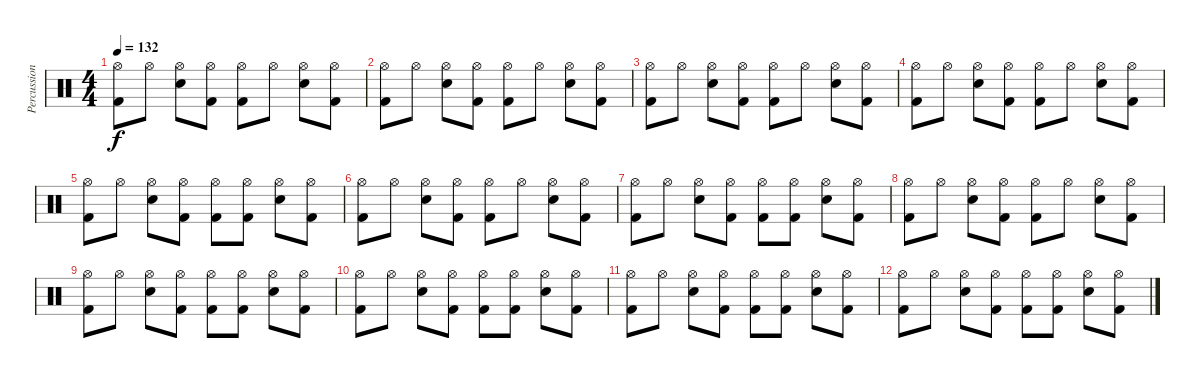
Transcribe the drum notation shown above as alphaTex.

\track ("Percussion" "Percussion") {instrument percussion}
\staff {score}
\articulation defaults
\ts (4 4)
\tempo 132
\clef neutral
\ks c
("Hi-Hat (open)" "Kick (hit) 2").8{dy f} "Hi-Hat (open)".8 ("Hi-Hat (open)" "Electric Snare (hit)").8 ("Hi-Hat (open)" "Kick (hit) 2").8 ("Hi-Hat (open)" "Kick (hit) 2").8 "Hi-Hat (open)".8 ("Hi-Hat (open)" "Electric Snare (hit)").8 ("Hi-Hat (open)" "Kick (hit) 2").8 |
("Hi-Hat (open)" "Kick (hit) 2").8 "Hi-Hat (open)".8 ("Hi-Hat (open)" "Electric Snare (hit)").8 ("Hi-Hat (open)" "Kick (hit) 2").8 ("Hi-Hat (open)" "Kick (hit) 2").8 "Hi-Hat (open)".8 ("Hi-Hat (open)" "Electric Snare (hit)").8 ("Hi-Hat (open)" "Kick (hit) 2").8 |
("Hi-Hat (open)" "Kick (hit) 2").8 "Hi-Hat (open)".8 ("Hi-Hat (open)" "Electric Snare (hit)").8 ("Hi-Hat (open)" "Kick (hit) 2").8 ("Hi-Hat (open)" "Kick (hit) 2").8 "Hi-Hat (open)".8 ("Hi-Hat (open)" "Electric Snare (hit)").8 ("Hi-Hat (open)" "Kick (hit) 2").8 |
("Hi-Hat (open)" "Kick (hit) 2").8 "Hi-Hat (open)".8 ("Hi-Hat (open)" "Electric Snare (hit)").8 ("Hi-Hat (open)" "Kick (hit) 2").8 ("Hi-Hat (open)" "Kick (hit) 2").8 "Hi-Hat (open)".8 ("Hi-Hat (open)" "Electric Snare (hit)").8 ("Hi-Hat (open)" "Kick (hit) 2").8 |
("Hi-Hat (open)" "Kick (hit) 2").8 "Hi-Hat (open)".8 ("Hi-Hat (open)" "Electric Snare (hit)").8 ("Hi-Hat (open)" "Kick (hit) 2").8 ("Hi-Hat (open)" "Kick (hit) 2").8 ("Hi-Hat (open)" "Kick (hit) 2").8 ("Hi-Hat (open)" "Electric Snare (hit)").8 ("Hi-Hat (open)" "Kick (hit) 2").8 |
("Hi-Hat (open)" "Kick (hit) 2").8 "Hi-Hat (open)".8 ("Hi-Hat (open)" "Electric Snare (hit)").8 ("Hi-Hat (open)" "Kick (hit) 2").8 ("Hi-Hat (open)" "Kick (hit) 2").8 "Hi-Hat (open)".8 ("Hi-Hat (open)" "Electric Snare (hit)").8 ("Hi-Hat (open)" "Kick (hit) 2").8 |
("Hi-Hat (open)" "Kick (hit) 2").8 "Hi-Hat (open)".8 ("Hi-Hat (open)" "Electric Snare (hit)").8 ("Hi-Hat (open)" "Kick (hit) 2").8 ("Hi-Hat (open)" "Kick (hit) 2").8 ("Hi-Hat (open)" "Kick (hit) 2").8 ("Hi-Hat (open)" "Electric Snare (hit)").8 ("Hi-Hat (open)" "Kick (hit) 2").8 |
("Hi-Hat (open)" "Kick (hit) 2").8 "Hi-Hat (open)".8 ("Hi-Hat (open)" "Electric Snare (hit)").8 ("Hi-Hat (open)" "Kick (hit) 2").8 ("Hi-Hat (open)" "Kick (hit) 2").8 "Hi-Hat (open)".8 ("Hi-Hat (open)" "Electric Snare (hit)").8 ("Hi-Hat (open)" "Kick (hit) 2").8 |
("Hi-Hat (open)" "Kick (hit) 2").8 "Hi-Hat (open)".8 ("Hi-Hat (open)" "Electric Snare (hit)").8 ("Hi-Hat (open)" "Kick (hit) 2").8 ("Hi-Hat (open)" "Kick (hit) 2").8 ("Hi-Hat (open)" "Kick (hit) 2").8 ("Hi-Hat (open)" "Electric Snare (hit)").8 ("Hi-Hat (open)" "Kick (hit) 2").8 |
("Hi-Hat (open)" "Kick (hit) 2").8 "Hi-Hat (open)".8 ("Hi-Hat (open)" "Electric Snare (hit)").8 ("Hi-Hat (open)" "Kick (hit) 2").8 ("Hi-Hat (open)" "Kick (hit) 2").8 ("Hi-Hat (open)" "Kick (hit) 2").8 ("Hi-Hat (open)" "Electric Snare (hit)").8 ("Hi-Hat (open)" "Kick (hit) 2").8 |
("Hi-Hat (open)" "Kick (hit) 2").8 "Hi-Hat (open)".8 ("Hi-Hat (open)" "Electric Snare (hit)").8 ("Hi-Hat (open)" "Kick (hit) 2").8 ("Hi-Hat (open)" "Kick (hit) 2").8 ("Hi-Hat (open)" "Kick (hit) 2").8 ("Hi-Hat (open)" "Electric Snare (hit)").8 ("Hi-Hat (open)" "Kick (hit) 2").8 |
("Hi-Hat (open)" "Kick (hit) 2").8 "Hi-Hat (open)".8 ("Hi-Hat (open)" "Electric Snare (hit)").8 ("Hi-Hat (open)" "Kick (hit) 2").8 ("Hi-Hat (open)" "Kick (hit) 2").8 ("Hi-Hat (open)" "Kick (hit) 2").8 ("Hi-Hat (open)" "Electric Snare (hit)").8 ("Hi-Hat (open)" "Kick (hit) 2").8
